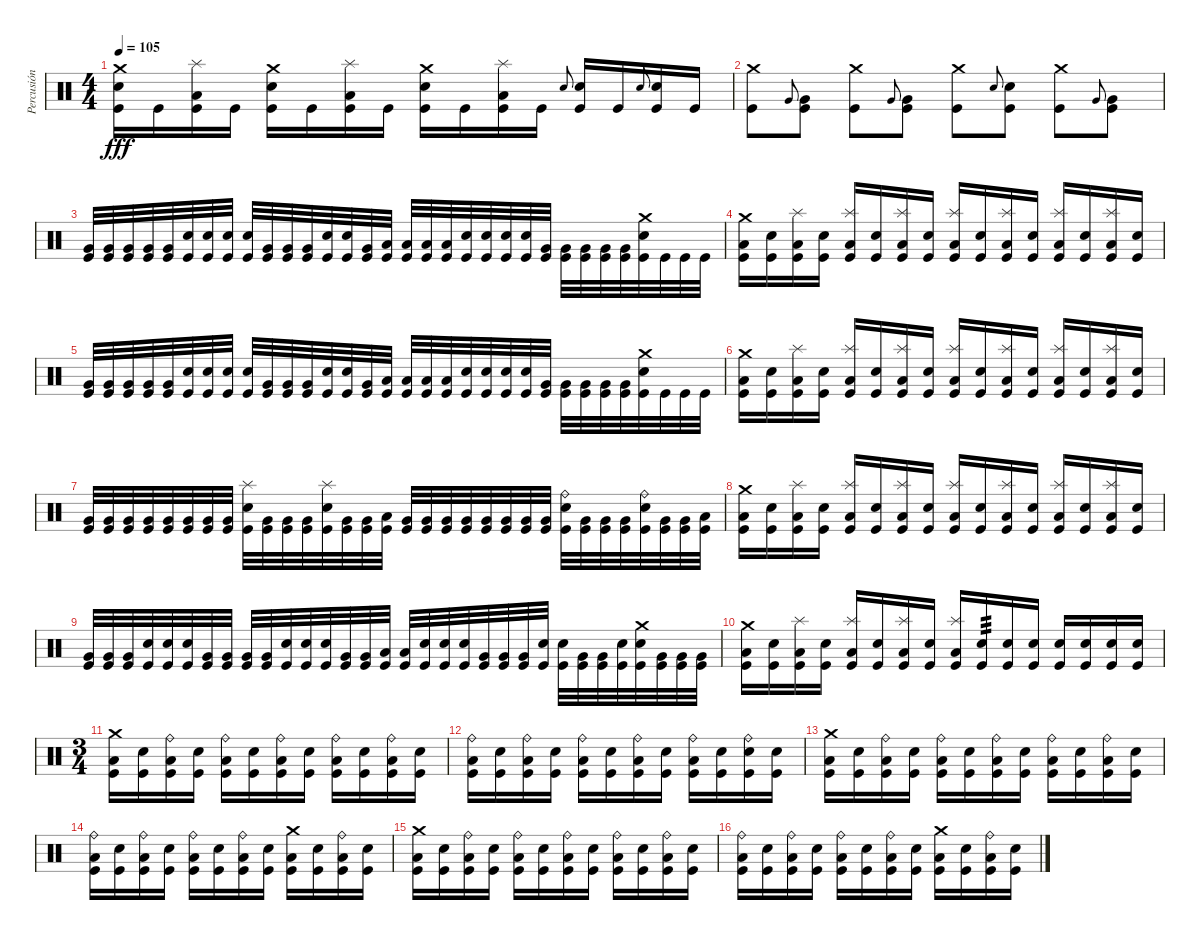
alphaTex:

\track ("Percusión" "Percusión") {instrument percussion}
\staff {score}
\articulation defaults
\ts (4 4)
\tempo 105
\clef neutral
\ks c
("Crash medium (hit)" "Snare (hit) 2" "Kick (hit)").16{dy fff} "Kick (hit)".16 ("Splash (hit)" "Low Floor Tom (hit)" "Kick (hit)").16 "Kick (hit)".16 ("Crash medium (hit)" "Snare (hit) 2" "Kick (hit)").16 "Kick (hit)".16 ("Splash (hit)" "Low Floor Tom (hit)" "Kick (hit)").16 "Kick (hit)".16 ("Crash medium (hit)" "Snare (hit) 2" "Kick (hit)").16 "Kick (hit)".16 ("Splash (hit)" "Low Floor Tom (hit)" "Kick (hit)").16 "Kick (hit)".16 "Snare (hit) 2".8{gr onbeat} ("Snare (hit) 2" "Kick (hit)").16 "Kick (hit)".16 "Snare (hit) 2".8{gr onbeat} ("Snare (hit) 2" "Kick (hit)").16 "Kick (hit)".16 |
("Crash medium (hit)" "Kick (hit)").8 "Very Low Tom (hit)".8{gr onbeat} ("Very Low Tom (hit)" "Kick (hit)").8 ("Crash medium (hit)" "Kick (hit)").8 "Very Low Tom (hit)".8{gr onbeat} ("Very Low Tom (hit)" "Kick (hit)").8 ("Crash medium (hit)" "Kick (hit)").8 "Snare (hit) 2".8{gr onbeat} ("Snare (hit) 2" "Kick (hit)").8 ("Crash medium (hit)" "Kick (hit)").8 "Very Low Tom (hit)".8{gr onbeat} ("Very Low Tom (hit)" "Kick (hit)").8 |
("Very Low Tom (hit)" "Kick (hit)").32 ("Very Low Tom (hit)" "Kick (hit)").32 ("Very Low Tom (hit)" "Kick (hit)").32 ("Very Low Tom (hit)" "Kick (hit)").32 ("Very Low Tom (hit)" "Kick (hit)").32 ("Snare (hit) 2" "Kick (hit)").32 ("Snare (hit) 2" "Kick (hit)").32 ("Snare (hit) 2" "Kick (hit)").32 ("Snare (hit) 2" "Kick (hit)").32 ("Very Low Tom (hit)" "Kick (hit)").32 ("Very Low Tom (hit)" "Kick (hit)").32 ("Very Low Tom (hit)" "Kick (hit)").32 ("Snare (hit) 2" "Kick (hit)").32 ("Snare (hit) 2" "Kick (hit)").32 ("Very Low Tom (hit)" "Kick (hit)").32 ("Low Floor Tom (hit)" "Kick (hit)").32 ("Low Floor Tom (hit)" "Kick (hit)").32 ("Low Floor Tom (hit)" "Kick (hit)").32 ("Low Floor Tom (hit)" "Kick (hit)").32 ("Snare (hit) 2" "Kick (hit)").32 ("Snare (hit) 2" "Kick (hit)").32 ("Snare (hit) 2" "Kick (hit)").32 ("Snare (hit) 2" "Kick (hit)").32 ("Very Low Tom (hit)" "Kick (hit)").32 ("Very Low Tom (hit)" "Kick (hit)").32 ("Very Low Tom (hit)" "Kick (hit)").32 ("Very Low Tom (hit)" "Kick (hit)").32 ("Very Low Tom (hit)" "Kick (hit)").32 ("Crash medium (hit)" "Snare (hit) 2" "Kick (hit)").32 "Kick (hit)".32 "Kick (hit)".32 "Kick (hit)".32 |
("Crash medium (hit)" "Low Floor Tom (hit)" "Kick (hit)").16 ("Snare (hit) 2" "Kick (hit)").16 ("Splash (hit)" "Low Floor Tom (hit)" "Kick (hit)").16 ("Snare (hit) 2" "Kick (hit)").16 ("Splash (hit)" "Low Floor Tom (hit)" "Kick (hit)").16 ("Snare (hit) 2" "Kick (hit)").16 ("Splash (hit)" "Low Floor Tom (hit)" "Kick (hit)").16 ("Snare (hit) 2" "Kick (hit)").16 ("Splash (hit)" "Low Floor Tom (hit)" "Kick (hit)").16 ("Snare (hit) 2" "Kick (hit)").16 ("Splash (hit)" "Low Floor Tom (hit)" "Kick (hit)").16 ("Snare (hit) 2" "Kick (hit)").16 ("Splash (hit)" "Low Floor Tom (hit)" "Kick (hit)").16 ("Snare (hit) 2" "Kick (hit)").16 ("Splash (hit)" "Low Floor Tom (hit)" "Kick (hit)").16 ("Snare (hit) 2" "Kick (hit)").16 |
("Very Low Tom (hit)" "Kick (hit)").32 ("Very Low Tom (hit)" "Kick (hit)").32 ("Very Low Tom (hit)" "Kick (hit)").32 ("Very Low Tom (hit)" "Kick (hit)").32 ("Very Low Tom (hit)" "Kick (hit)").32 ("Snare (hit) 2" "Kick (hit)").32 ("Snare (hit) 2" "Kick (hit)").32 ("Snare (hit) 2" "Kick (hit)").32 ("Snare (hit) 2" "Kick (hit)").32 ("Very Low Tom (hit)" "Kick (hit)").32 ("Very Low Tom (hit)" "Kick (hit)").32 ("Very Low Tom (hit)" "Kick (hit)").32 ("Snare (hit) 2" "Kick (hit)").32 ("Snare (hit) 2" "Kick (hit)").32 ("Very Low Tom (hit)" "Kick (hit)").32 ("Low Floor Tom (hit)" "Kick (hit)").32 ("Low Floor Tom (hit)" "Kick (hit)").32 ("Low Floor Tom (hit)" "Kick (hit)").32 ("Low Floor Tom (hit)" "Kick (hit)").32 ("Snare (hit) 2" "Kick (hit)").32 ("Snare (hit) 2" "Kick (hit)").32 ("Snare (hit) 2" "Kick (hit)").32 ("Snare (hit) 2" "Kick (hit)").32 ("Very Low Tom (hit)" "Kick (hit)").32 ("Very Low Tom (hit)" "Kick (hit)").32 ("Very Low Tom (hit)" "Kick (hit)").32 ("Very Low Tom (hit)" "Kick (hit)").32 ("Very Low Tom (hit)" "Kick (hit)").32 ("Crash medium (hit)" "Snare (hit) 2" "Kick (hit)").32 "Kick (hit)".32 "Kick (hit)".32 "Kick (hit)".32 |
("Crash medium (hit)" "Low Floor Tom (hit)" "Kick (hit)").16 ("Snare (hit) 2" "Kick (hit)").16 ("Splash (hit)" "Low Floor Tom (hit)" "Kick (hit)").16 ("Snare (hit) 2" "Kick (hit)").16 ("Splash (hit)" "Low Floor Tom (hit)" "Kick (hit)").16 ("Snare (hit) 2" "Kick (hit)").16 ("Splash (hit)" "Low Floor Tom (hit)" "Kick (hit)").16 ("Snare (hit) 2" "Kick (hit)").16 ("Splash (hit)" "Low Floor Tom (hit)" "Kick (hit)").16 ("Snare (hit) 2" "Kick (hit)").16 ("Splash (hit)" "Low Floor Tom (hit)" "Kick (hit)").16 ("Snare (hit) 2" "Kick (hit)").16 ("Splash (hit)" "Low Floor Tom (hit)" "Kick (hit)").16 ("Snare (hit) 2" "Kick (hit)").16 ("Splash (hit)" "Low Floor Tom (hit)" "Kick (hit)").16 ("Snare (hit) 2" "Kick (hit)").16 |
("Very Low Tom (hit)" "Kick (hit)").32 ("Very Low Tom (hit)" "Kick (hit)").32 ("Very Low Tom (hit)" "Kick (hit)").32 ("Very Low Tom (hit)" "Kick (hit)").32 ("Very Low Tom (hit)" "Kick (hit)").32 ("Very Low Tom (hit)" "Kick (hit)").32 ("Very Low Tom (hit)" "Kick (hit)").32 ("Very Low Tom (hit)" "Kick (hit)").32 ("Splash (hit)" "Snare (hit) 2" "Kick (hit)").32 ("Very Low Tom (hit)" "Kick (hit)").32 ("Very Low Tom (hit)" "Kick (hit)").32 ("Very Low Tom (hit)" "Kick (hit)").32 ("Splash (hit)" "Snare (hit) 2" "Kick (hit)").32 ("Very Low Tom (hit)" "Kick (hit)").32 ("Very Low Tom (hit)" "Kick (hit)").32 ("Low Floor Tom (hit)" "Kick (hit)").32 ("Very Low Tom (hit)" "Kick (hit)").32 ("Very Low Tom (hit)" "Kick (hit)").32 ("Very Low Tom (hit)" "Kick (hit)").32 ("Very Low Tom (hit)" "Kick (hit)").32 ("Very Low Tom (hit)" "Kick (hit)").32 ("Very Low Tom (hit)" "Kick (hit)").32 ("Very Low Tom (hit)" "Kick (hit)").32 ("Very Low Tom (hit)" "Kick (hit)").32 ("Ride (bell)" "Snare (hit) 2" "Kick (hit)").32 ("Very Low Tom (hit)" "Kick (hit)").32 ("Very Low Tom (hit)" "Kick (hit)").32 ("Very Low Tom (hit)" "Kick (hit)").32 ("Ride (bell)" "Snare (hit) 2" "Kick (hit)").32 ("Very Low Tom (hit)" "Kick (hit)").32 ("Very Low Tom (hit)" "Kick (hit)").32 ("Low Floor Tom (hit)" "Kick (hit)").32 |
("Crash medium (hit)" "Low Floor Tom (hit)" "Kick (hit)").16 ("Snare (hit) 2" "Kick (hit)").16 ("Splash (hit)" "Low Floor Tom (hit)" "Kick (hit)").16 ("Snare (hit) 2" "Kick (hit)").16 ("Splash (hit)" "Low Floor Tom (hit)" "Kick (hit)").16 ("Snare (hit) 2" "Kick (hit)").16 ("Splash (hit)" "Low Floor Tom (hit)" "Kick (hit)").16 ("Snare (hit) 2" "Kick (hit)").16 ("Splash (hit)" "Low Floor Tom (hit)" "Kick (hit)").16 ("Snare (hit) 2" "Kick (hit)").16 ("Splash (hit)" "Low Floor Tom (hit)" "Kick (hit)").16 ("Snare (hit) 2" "Kick (hit)").16 ("Splash (hit)" "Low Floor Tom (hit)" "Kick (hit)").16 ("Snare (hit) 2" "Kick (hit)").16 ("Splash (hit)" "Low Floor Tom (hit)" "Kick (hit)").16 ("Snare (hit) 2" "Kick (hit)").16 |
("Very Low Tom (hit)" "Kick (hit)").32 ("Very Low Tom (hit)" "Kick (hit)").32 ("Very Low Tom (hit)" "Kick (hit)").32 ("Snare (hit) 2" "Kick (hit)").32 ("Snare (hit) 2" "Kick (hit)").32 ("Snare (hit) 2" "Kick (hit)").32 ("Very Low Tom (hit)" "Kick (hit)").32 ("Very Low Tom (hit)" "Kick (hit)").32 ("Very Low Tom (hit)" "Kick (hit)").32 ("Very Low Tom (hit)" "Kick (hit)").32 ("Snare (hit) 2" "Kick (hit)").32 ("Snare (hit) 2" "Kick (hit)").32 ("Snare (hit) 2" "Kick (hit)").32 ("Very Low Tom (hit)" "Kick (hit)").32 ("Very Low Tom (hit)" "Kick (hit)").32 ("Low Floor Tom (hit)" "Kick (hit)").32 ("Low Floor Tom (hit)" "Kick (hit)").32 ("Snare (hit) 2" "Kick (hit)").32 ("Snare (hit) 2" "Kick (hit)").32 ("Snare (hit) 2" "Kick (hit)").32 ("Very Low Tom (hit)" "Kick (hit)").32 ("Very Low Tom (hit)" "Kick (hit)").32 ("Very Low Tom (hit)" "Kick (hit)").32 ("Snare (hit) 2" "Kick (hit)").32 ("Snare (hit) 2" "Kick (hit)").32 ("Very Low Tom (hit)" "Kick (hit)").32 ("Very Low Tom (hit)" "Kick (hit)").32 ("Snare (hit) 2" "Kick (hit)").32 ("Crash medium (hit)" "Snare (hit) 2" "Kick (hit)").32 ("Very Low Tom (hit)" "Kick (hit)").32 ("Very Low Tom (hit)" "Kick (hit)").32 ("Very Low Tom (hit)" "Kick (hit)").32 |
("Crash medium (hit)" "Low Floor Tom (hit)" "Kick (hit)").16 ("Snare (hit) 2" "Kick (hit)").16 ("Splash (hit)" "Low Floor Tom (hit)" "Kick (hit)").16 ("Snare (hit) 2" "Kick (hit)").16 ("Splash (hit)" "Low Floor Tom (hit)" "Kick (hit)").16 ("Snare (hit) 2" "Kick (hit)").16 ("Splash (hit)" "Low Floor Tom (hit)" "Kick (hit)").16 ("Snare (hit) 2" "Kick (hit)").16 ("Splash (hit)" "Low Floor Tom (hit)" "Kick (hit)").16 ("Snare (hit) 2" "Kick (hit)").16{tp 3} ("Snare (hit) 2" "Kick (hit)").16 ("Snare (hit) 2" "Kick (hit)").16 ("Snare (hit) 2" "Kick (hit)").16 ("Snare (hit) 2" "Kick (hit)").16 ("Snare (hit) 2" "Kick (hit)").16 ("Snare (hit) 2" "Kick (hit)").16 |
\ts (3 4)
("Crash medium (hit)" "Low Floor Tom (hit)" "Kick (hit)").16 ("Snare (hit) 2" "Kick (hit)").16 ("Ride (bell)" "Low Floor Tom (hit)" "Kick (hit)").16 ("Snare (hit) 2" "Kick (hit)").16 ("Ride (bell)" "Low Floor Tom (hit)" "Kick (hit)").16 ("Snare (hit) 2" "Kick (hit)").16 ("Ride (bell)" "Low Floor Tom (hit)" "Kick (hit)").16 ("Snare (hit) 2" "Kick (hit)").16 ("Ride (bell)" "Low Floor Tom (hit)" "Kick (hit)").16 ("Snare (hit) 2" "Kick (hit)").16 ("Ride (bell)" "Low Floor Tom (hit)" "Kick (hit)").16 ("Snare (hit) 2" "Kick (hit)").16 |
("Ride (bell)" "Low Floor Tom (hit)" "Kick (hit)").16 ("Snare (hit) 2" "Kick (hit)").16 ("Ride (bell)" "Low Floor Tom (hit)" "Kick (hit)").16 ("Snare (hit) 2" "Kick (hit)").16 ("Ride (bell)" "Low Floor Tom (hit)" "Kick (hit)").16 ("Snare (hit) 2" "Kick (hit)").16 ("Ride (bell)" "Low Floor Tom (hit)" "Kick (hit)").16 ("Snare (hit) 2" "Kick (hit)").16 ("Ride (bell)" "Low Floor Tom (hit)" "Kick (hit)").16 ("Snare (hit) 2" "Kick (hit)").16 ("Ride (bell)" "Snare (hit) 2" "Kick (hit)").16 ("Snare (hit) 2" "Kick (hit)").16 |
("Crash medium (hit)" "Low Floor Tom (hit)" "Kick (hit)").16 ("Snare (hit) 2" "Kick (hit)").16 ("Ride (bell)" "Low Floor Tom (hit)" "Kick (hit)").16 ("Snare (hit) 2" "Kick (hit)").16 ("Ride (bell)" "Low Floor Tom (hit)" "Kick (hit)").16 ("Snare (hit) 2" "Kick (hit)").16 ("Ride (bell)" "Low Floor Tom (hit)" "Kick (hit)").16 ("Snare (hit) 2" "Kick (hit)").16 ("Ride (bell)" "Low Floor Tom (hit)" "Kick (hit)").16 ("Snare (hit) 2" "Kick (hit)").16 ("Ride (bell)" "Low Floor Tom (hit)" "Kick (hit)").16 ("Snare (hit) 2" "Kick (hit)").16 |
("Ride (bell)" "Low Floor Tom (hit)" "Kick (hit)").16 ("Snare (hit) 2" "Kick (hit)").16 ("Ride (bell)" "Low Floor Tom (hit)" "Kick (hit)").16 ("Snare (hit) 2" "Kick (hit)").16 ("Ride (bell)" "Low Floor Tom (hit)" "Kick (hit)").16 ("Snare (hit) 2" "Kick (hit)").16 ("Ride (bell)" "Low Floor Tom (hit)" "Kick (hit)").16 ("Snare (hit) 2" "Kick (hit)").16 ("Crash medium (hit)" "Low Floor Tom (hit)" "Kick (hit)").16 ("Snare (hit) 2" "Kick (hit)").16 ("Ride (bell)" "Low Floor Tom (hit)" "Kick (hit)").16 ("Snare (hit) 2" "Kick (hit)").16 |
("Crash medium (hit)" "Low Floor Tom (hit)" "Kick (hit)").16 ("Snare (hit) 2" "Kick (hit)").16 ("Ride (bell)" "Low Floor Tom (hit)" "Kick (hit)").16 ("Snare (hit) 2" "Kick (hit)").16 ("Ride (bell)" "Low Floor Tom (hit)" "Kick (hit)").16 ("Snare (hit) 2" "Kick (hit)").16 ("Ride (bell)" "Low Floor Tom (hit)" "Kick (hit)").16 ("Snare (hit) 2" "Kick (hit)").16 ("Ride (bell)" "Low Floor Tom (hit)" "Kick (hit)").16 ("Snare (hit) 2" "Kick (hit)").16 ("Ride (bell)" "Low Floor Tom (hit)" "Kick (hit)").16 ("Snare (hit) 2" "Kick (hit)").16 |
("Ride (bell)" "Low Floor Tom (hit)" "Kick (hit)").16 ("Snare (hit) 2" "Kick (hit)").16 ("Ride (bell)" "Low Floor Tom (hit)" "Kick (hit)").16 ("Snare (hit) 2" "Kick (hit)").16 ("Ride (bell)" "Low Floor Tom (hit)" "Kick (hit)").16 ("Snare (hit) 2" "Kick (hit)").16 ("Ride (bell)" "Low Floor Tom (hit)" "Kick (hit)").16 ("Snare (hit) 2" "Kick (hit)").16 ("Crash medium (hit)" "Low Floor Tom (hit)" "Kick (hit)").16 ("Snare (hit) 2" "Kick (hit)").16 ("Ride (bell)" "Low Floor Tom (hit)" "Kick (hit)").16 ("Snare (hit) 2" "Kick (hit)").16
